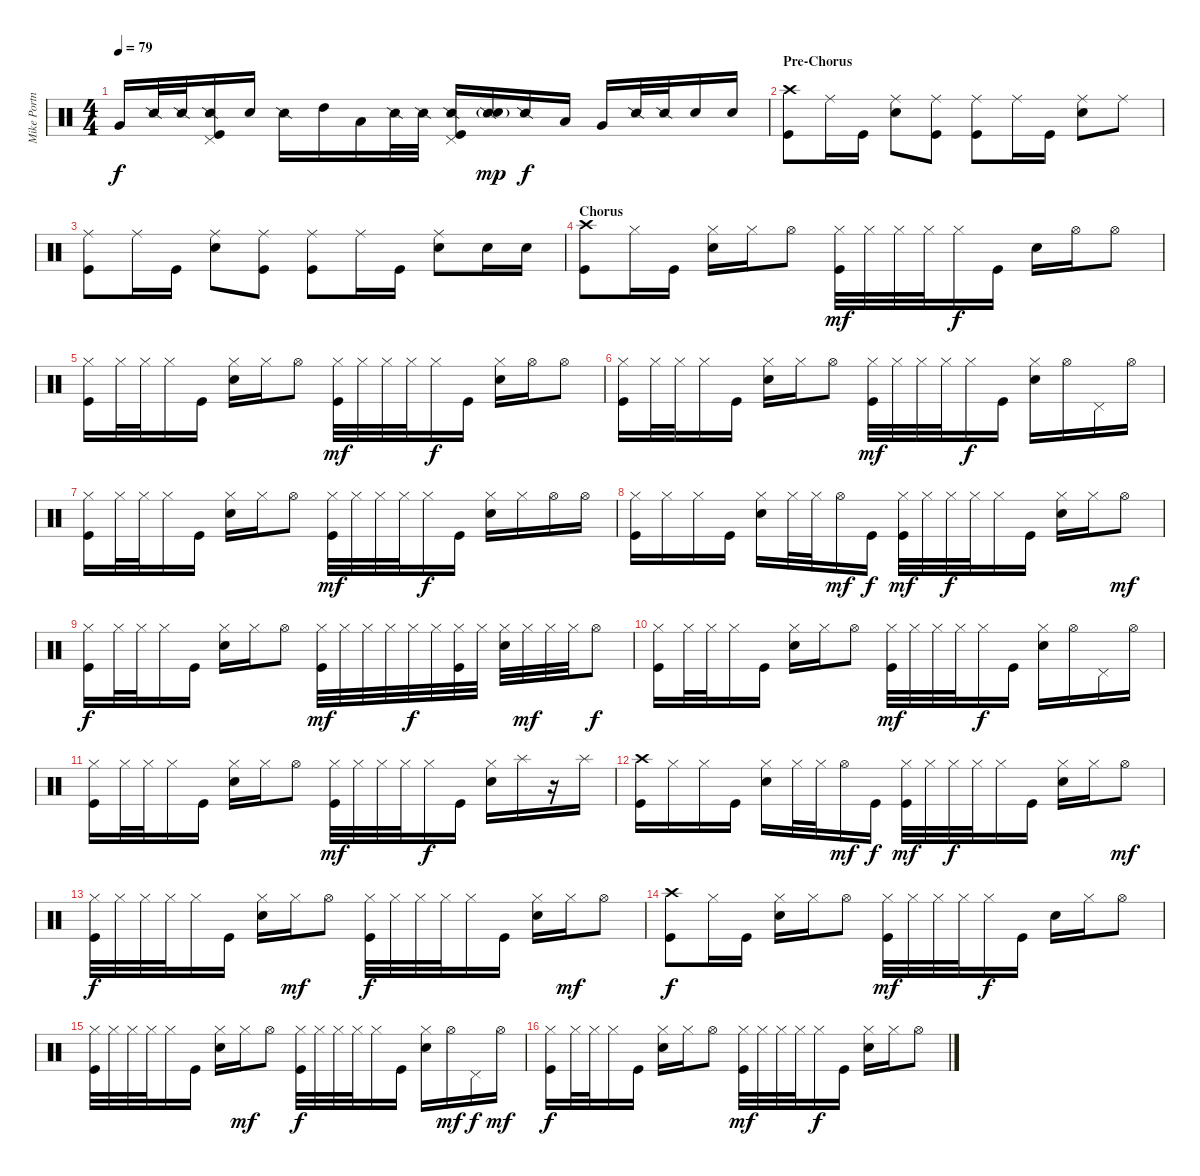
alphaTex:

\track ("Mike Portnoy" "Mike Portn") {instrument percussion}
\staff {score}
\articulation defaults
\ts (4 4)
\tempo 79
\clef neutral
\ks c "Very Low Tom (hit)".16{dy f} "Snare (side stick) 2".32 "Snare (side stick) 2".32
("Snare (side stick) 2" "Pedal Hi-Hat (hit)" "Kick (hit)").16 "Electric Snare (hit)".16 "Snare (side stick) 2".16 "High Tom (hit)".16 "Low Tom (hit)".16 "Snare (side stick) 2".32 "Snare (side stick) 2".32 ("Snare (side stick) 2" "Pedal Hi-Hat (hit)" "Kick (hit)").16 ("Snare (side stick) 2" "Electric Snare (hit)"{g}).16{dy mp} "Snare (side stick) 2".16{dy f} "Low Tom (hit)".16 "Very Low Tom (hit)".16 "Snare (side stick) 2".32 "Snare (side stick) 2".32 "Electric Snare (hit)".16 "Electric Snare (hit)".16 |
\section ("" "Pre-Chorus")
("Crash high (hit)" "Kick (hit)").8{volume 15} "Ride (middle)".16 "Kick (hit)".16 ("Ride (middle)" "Electric Snare (hit)").8 ("Ride (middle)" "Kick (hit)").8 ("Ride (middle)" "Kick (hit)").8 "Ride (middle)".16 "Kick (hit)".16 ("Ride (middle)" "Electric Snare (hit)").8 "Ride (middle)".8 |
("Ride (middle)" "Kick (hit)").8 "Ride (middle)".16 "Kick (hit)".16 ("Ride (middle)" "Electric Snare (hit)").8 ("Ride (middle)" "Kick (hit)").8 ("Ride (middle)" "Kick (hit)").8 "Ride (middle)".16 "Kick (hit)".16 ("Ride (middle)" "Electric Snare (hit)").8 "Electric Snare (hit)".16 "Electric Snare (hit)".16 |
\section ("" "Chorus")
("Crash high (hit)" "Kick (hit)").8{volume 15} "Hi-Hat (closed)".16 "Kick (hit)".16 ("Hi-Hat (closed)" "Electric Snare (hit)").16 "Hi-Hat (closed)".16 "Hi-Hat (open)".8 ("Hi-Hat (closed)" "Kick (hit)").32{dy mf} "Hi-Hat (closed)".32 "Hi-Hat (closed)".32 "Hi-Hat (closed)".32 "Hi-Hat (closed)".16{dy f} "Kick (hit)".16 "Electric Snare (hit)".16 "Hi-Hat (open)".16 "Hi-Hat (open)".8 |
("Hi-Hat (closed)" "Kick (hit)").16 "Hi-Hat (closed)".32 "Hi-Hat (closed)".32 "Hi-Hat (closed)".16 "Kick (hit)".16 ("Hi-Hat (closed)" "Electric Snare (hit)").16 "Hi-Hat (closed)".16 "Hi-Hat (open)".8 ("Hi-Hat (closed)" "Kick (hit)").32{dy mf} "Hi-Hat (closed)".32 "Hi-Hat (closed)".32 "Hi-Hat (closed)".32 "Hi-Hat (closed)".16{dy f} "Kick (hit)".16 ("Hi-Hat (closed)" "Electric Snare (hit)").16 "Hi-Hat (open)".16 "Hi-Hat (open)".8 |
("Hi-Hat (closed)" "Kick (hit)").16 "Hi-Hat (closed)".32 "Hi-Hat (closed)".32 "Hi-Hat (closed)".16 "Kick (hit)".16 ("Hi-Hat (closed)" "Electric Snare (hit)").16 "Hi-Hat (closed)".16 "Hi-Hat (open)".8 ("Hi-Hat (closed)" "Kick (hit)").32{dy mf} "Hi-Hat (closed)".32 "Hi-Hat (closed)".32 "Hi-Hat (closed)".32 "Hi-Hat (closed)".16{dy f} "Kick (hit)".16 ("Hi-Hat (closed)" "Electric Snare (hit)").16 "Hi-Hat (open)".16 "Pedal Hi-Hat (hit)".16 "Hi-Hat (open)".16 |
("Hi-Hat (closed)" "Kick (hit)").16 "Hi-Hat (closed)".32 "Hi-Hat (closed)".32 "Hi-Hat (closed)".16 "Kick (hit)".16 ("Hi-Hat (closed)" "Electric Snare (hit)").16 "Hi-Hat (closed)".16 "Hi-Hat (open)".8 ("Hi-Hat (closed)" "Kick (hit)").32{dy mf} "Hi-Hat (closed)".32 "Hi-Hat (closed)".32 "Hi-Hat (closed)".32 "Hi-Hat (closed)".16{dy f} "Kick (hit)".16 ("Hi-Hat (closed)" "Electric Snare (hit)").16 "Hi-Hat (closed)".16 "Hi-Hat (open)".16 "Hi-Hat (open)".16 |
("Hi-Hat (closed)" "Kick (hit)").16 "Hi-Hat (closed)".16 "Hi-Hat (closed)".16 "Kick (hit)".16 ("Hi-Hat (closed)" "Electric Snare (hit)").16 "Hi-Hat (closed)".32 "Hi-Hat (closed)".32 "Hi-Hat (open)".16{dy mf} "Kick (hit)".16{dy f} ("Hi-Hat (closed)" "Kick (hit)").32{dy mf} "Hi-Hat (closed)".32 "Hi-Hat (closed)".32{dy f} "Hi-Hat (closed)".32 "Hi-Hat (closed)".16 "Kick (hit)".16 ("Hi-Hat (closed)" "Electric Snare (hit)").16 "Hi-Hat (closed)".16 "Hi-Hat (open)".8{dy mf} |
("Hi-Hat (closed)" "Kick (hit)").16{dy f} "Hi-Hat (closed)".32 "Hi-Hat (closed)".32 "Hi-Hat (closed)".16 "Kick (hit)".16 ("Hi-Hat (closed)" "Electric Snare (hit)").16 "Hi-Hat (closed)".16 "Hi-Hat (open)".8 ("Hi-Hat (closed)" "Kick (hit)").32{dy mf} "Hi-Hat (closed)".32 "Hi-Hat (closed)".32 "Hi-Hat (closed)".32 "Hi-Hat (closed)".32{dy f} "Hi-Hat (closed)".32 ("Hi-Hat (closed)" "Kick (hit)").32 "Hi-Hat (closed)".32 ("Hi-Hat (closed)" "Electric Snare (hit)").32 "Hi-Hat (closed)".32{dy mf} "Hi-Hat (closed)".32 "Hi-Hat (closed)".32 "Hi-Hat (open)".8{dy f} |
("Hi-Hat (closed)" "Kick (hit)").16 "Hi-Hat (closed)".32 "Hi-Hat (closed)".32 "Hi-Hat (closed)".16 "Kick (hit)".16 ("Hi-Hat (closed)" "Electric Snare (hit)").16 "Hi-Hat (closed)".16 "Hi-Hat (open)".8 ("Hi-Hat (closed)" "Kick (hit)").32{dy mf} "Hi-Hat (closed)".32 "Hi-Hat (closed)".32 "Hi-Hat (closed)".32 "Hi-Hat (closed)".16{dy f} "Kick (hit)".16 ("Hi-Hat (closed)" "Electric Snare (hit)").16 "Hi-Hat (open)".16 "Pedal Hi-Hat (hit)".16 "Hi-Hat (open)".16 |
("Hi-Hat (closed)" "Kick (hit)").16 "Hi-Hat (closed)".32 "Hi-Hat (closed)".32 "Hi-Hat (closed)".16 "Kick (hit)".16 ("Hi-Hat (closed)" "Electric Snare (hit)").16 "Hi-Hat (closed)".16 "Hi-Hat (open)".8 ("Hi-Hat (closed)" "Kick (hit)").32{dy mf} "Hi-Hat (closed)".32 "Hi-Hat (closed)".32 "Hi-Hat (closed)".32 "Hi-Hat (closed)".16{dy f} "Kick (hit)".16 ("Hi-Hat (closed)" "Electric Snare (hit)").16 "Splash (hit)".16 r.16 "Splash (hit)".16 |
("Crash high (hit)" "Kick (hit)").16 "Hi-Hat (closed)".16 "Hi-Hat (closed)".16 "Kick (hit)".16 ("Hi-Hat (closed)" "Electric Snare (hit)").16 "Hi-Hat (closed)".32 "Hi-Hat (closed)".32 "Hi-Hat (open)".16{dy mf} "Kick (hit)".16{dy f} ("Hi-Hat (closed)" "Kick (hit)").32{dy mf} "Hi-Hat (closed)".32 "Hi-Hat (closed)".32{dy f} "Hi-Hat (closed)".32 "Hi-Hat (closed)".16 "Kick (hit)".16 ("Hi-Hat (closed)" "Electric Snare (hit)").16 "Hi-Hat (closed)".16 "Hi-Hat (open)".8{dy mf} |
("Hi-Hat (closed)" "Kick (hit)").32{dy f} "Hi-Hat (closed)".32 "Hi-Hat (closed)".32 "Hi-Hat (closed)".32 "Hi-Hat (closed)".16 "Kick (hit)".16 ("Hi-Hat (closed)" "Electric Snare (hit)").16 "Hi-Hat (closed)".16{dy mf} "Hi-Hat (open)".8 ("Hi-Hat (closed)" "Kick (hit)").32{dy f} "Hi-Hat (closed)".32 "Hi-Hat (closed)".32 "Hi-Hat (closed)".32 "Hi-Hat (closed)".16 "Kick (hit)".16 ("Hi-Hat (closed)" "Electric Snare (hit)").16 "Hi-Hat (closed)".16{dy mf} "Hi-Hat (open)".8 |
("Crash high (hit)" "Kick (hit)").8{dy f} "Hi-Hat (closed)".16 "Kick (hit)".16 ("Hi-Hat (closed)" "Electric Snare (hit)").16 "Hi-Hat (closed)".16 "Hi-Hat (open)".8 ("Hi-Hat (closed)" "Kick (hit)").32{dy mf} "Hi-Hat (closed)".32 "Hi-Hat (closed)".32 "Hi-Hat (closed)".32 "Hi-Hat (closed)".16{dy f} "Kick (hit)".16 "Electric Snare (hit)".16 "Hi-Hat (closed)".16 "Hi-Hat (open)".8 |
("Hi-Hat (closed)" "Kick (hit)").32 "Hi-Hat (closed)".32 "Hi-Hat (closed)".32 "Hi-Hat (closed)".32 "Hi-Hat (closed)".16 "Kick (hit)".16 ("Hi-Hat (closed)" "Electric Snare (hit)").16 "Hi-Hat (closed)".16{dy mf} "Hi-Hat (open)".8 ("Hi-Hat (closed)" "Kick (hit)").32{dy f} "Hi-Hat (closed)".32 "Hi-Hat (closed)".32 "Hi-Hat (closed)".32 "Hi-Hat (closed)".16 "Kick (hit)".16 ("Hi-Hat (closed)" "Electric Snare (hit)").16 "Hi-Hat (open)".16{dy mf} "Pedal Hi-Hat (hit)".16{dy f} "Hi-Hat (open)".16{dy mf} |
("Hi-Hat (closed)" "Kick (hit)").16{dy f} "Hi-Hat (closed)".32 "Hi-Hat (closed)".32 "Hi-Hat (closed)".16 "Kick (hit)".16 ("Hi-Hat (closed)" "Electric Snare (hit)").16 "Hi-Hat (closed)".16 "Hi-Hat (open)".8 ("Hi-Hat (closed)" "Kick (hit)").32{dy mf} "Hi-Hat (closed)".32 "Hi-Hat (closed)".32 "Hi-Hat (closed)".32 "Hi-Hat (closed)".16{dy f} "Kick (hit)".16 ("Hi-Hat (closed)" "Electric Snare (hit)").16 "Hi-Hat (closed)".16 "Hi-Hat (open)".8
